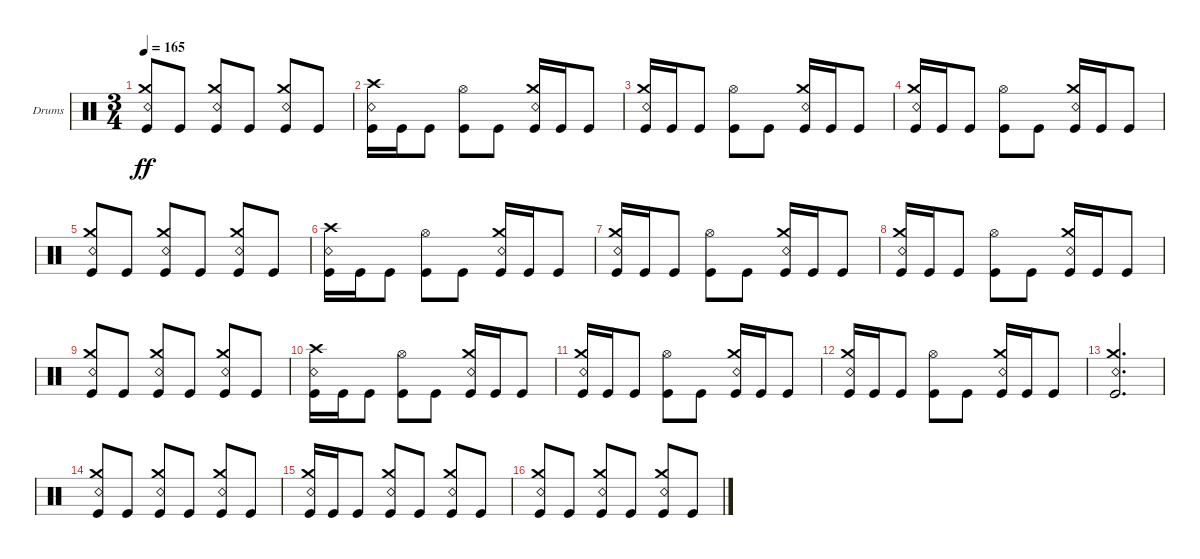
\bracketExtendMode groupsimilarinstruments
\firstSystemTrackNameOrientation horizontal
\otherSystemsTrackNameOrientation horizontal
\track ("Kaleb - Drums" "Drums") {instrument percussion}
\staff {score}
\articulation defaults
\ts (3 4)
\tempo 165
\clef neutral
\ks c
("Kick (hit)" "Crash medium (hit)" "Snare (rim shot)").8{dy ff} "Kick (hit)".8 ("Kick (hit)" "Crash medium (hit)" "Snare (rim shot)").8 "Kick (hit)".8 ("Kick (hit)" "Crash medium (hit)" "Snare (rim shot)").8 "Kick (hit)".8 |
("Kick (hit)" "Snare (rim shot)" "Crash high (hit)").16 "Kick (hit)".16 "Kick (hit)".8 ("Kick (hit)" "Hi-Hat (open)").8 "Kick (hit)".8 ("Kick (hit)" "Snare (rim shot)" "Crash medium (hit)").16 "Kick (hit)".16 "Kick (hit)".8 |
("Kick (hit)" "Snare (rim shot)" "Crash medium (hit)").16 "Kick (hit)".16 "Kick (hit)".8 ("Kick (hit)" "Hi-Hat (open)").8 "Kick (hit)".8 ("Kick (hit)" "Snare (rim shot)" "Crash medium (hit)").16 "Kick (hit)".16 "Kick (hit)".8 |
("Kick (hit)" "Snare (rim shot)" "Crash medium (hit)").16 "Kick (hit)".16 "Kick (hit)".8 ("Kick (hit)" "Hi-Hat (open)").8 "Kick (hit)".8 ("Kick (hit)" "Snare (rim shot)" "Crash medium (hit)").16 "Kick (hit)".16 "Kick (hit)".8 |
("Kick (hit)" "Crash medium (hit)" "Snare (rim shot)").8 "Kick (hit)".8 ("Kick (hit)" "Crash medium (hit)" "Snare (rim shot)").8 "Kick (hit)".8 ("Kick (hit)" "Crash medium (hit)" "Snare (rim shot)").8 "Kick (hit)".8 |
("Kick (hit)" "Snare (rim shot)" "Crash high (hit)").16 "Kick (hit)".16 "Kick (hit)".8 ("Kick (hit)" "Hi-Hat (open)").8 "Kick (hit)".8 ("Kick (hit)" "Snare (rim shot)" "Crash medium (hit)").16 "Kick (hit)".16 "Kick (hit)".8 |
("Kick (hit)" "Snare (rim shot)" "Crash medium (hit)").16 "Kick (hit)".16 "Kick (hit)".8 ("Kick (hit)" "Hi-Hat (open)").8 "Kick (hit)".8 ("Kick (hit)" "Snare (rim shot)" "Crash medium (hit)").16 "Kick (hit)".16 "Kick (hit)".8 |
("Kick (hit)" "Snare (rim shot)" "Crash medium (hit)").16 "Kick (hit)".16 "Kick (hit)".8 ("Kick (hit)" "Hi-Hat (open)").8 "Kick (hit)".8 ("Kick (hit)" "Snare (rim shot)" "Crash medium (hit)").16 "Kick (hit)".16 "Kick (hit)".8 |
("Kick (hit)" "Crash medium (hit)" "Snare (rim shot)").8 "Kick (hit)".8 ("Kick (hit)" "Crash medium (hit)" "Snare (rim shot)").8 "Kick (hit)".8 ("Kick (hit)" "Crash medium (hit)" "Snare (rim shot)").8 "Kick (hit)".8 |
("Kick (hit)" "Snare (rim shot)" "Crash high (hit)").16 "Kick (hit)".16 "Kick (hit)".8 ("Kick (hit)" "Hi-Hat (open)").8 "Kick (hit)".8 ("Kick (hit)" "Snare (rim shot)" "Crash medium (hit)").16 "Kick (hit)".16 "Kick (hit)".8 |
("Kick (hit)" "Snare (rim shot)" "Crash medium (hit)").16 "Kick (hit)".16 "Kick (hit)".8 ("Kick (hit)" "Hi-Hat (open)").8 "Kick (hit)".8 ("Kick (hit)" "Snare (rim shot)" "Crash medium (hit)").16 "Kick (hit)".16 "Kick (hit)".8 |
("Kick (hit)" "Snare (rim shot)" "Crash medium (hit)").16 "Kick (hit)".16 "Kick (hit)".8 ("Kick (hit)" "Hi-Hat (open)").8 "Kick (hit)".8 ("Kick (hit)" "Snare (rim shot)" "Crash medium (hit)").16 "Kick (hit)".16 "Kick (hit)".8 |
("Kick (hit)" "Crash medium (hit)" "Snare (rim shot)").2{d} |
("Kick (hit)" "Snare (rim shot)" "Crash medium (hit)").8 "Kick (hit)".8 ("Kick (hit)" "Snare (rim shot)" "Crash medium (hit)").8 "Kick (hit)".8 ("Kick (hit)" "Snare (rim shot)" "Crash medium (hit)").8 "Kick (hit)".8 |
("Kick (hit)" "Snare (rim shot)" "Crash medium (hit)").16 "Kick (hit)".16 "Kick (hit)".8 ("Kick (hit)" "Snare (rim shot)" "Crash medium (hit)").8 "Kick (hit)".8 ("Kick (hit)" "Snare (rim shot)" "Crash medium (hit)").8 "Kick (hit)".8 |
("Kick (hit)" "Snare (rim shot)" "Crash medium (hit)").8 "Kick (hit)".8 ("Kick (hit)" "Snare (rim shot)" "Crash medium (hit)").8 "Kick (hit)".8 ("Kick (hit)" "Snare (rim shot)" "Crash medium (hit)").8 "Kick (hit)".8
